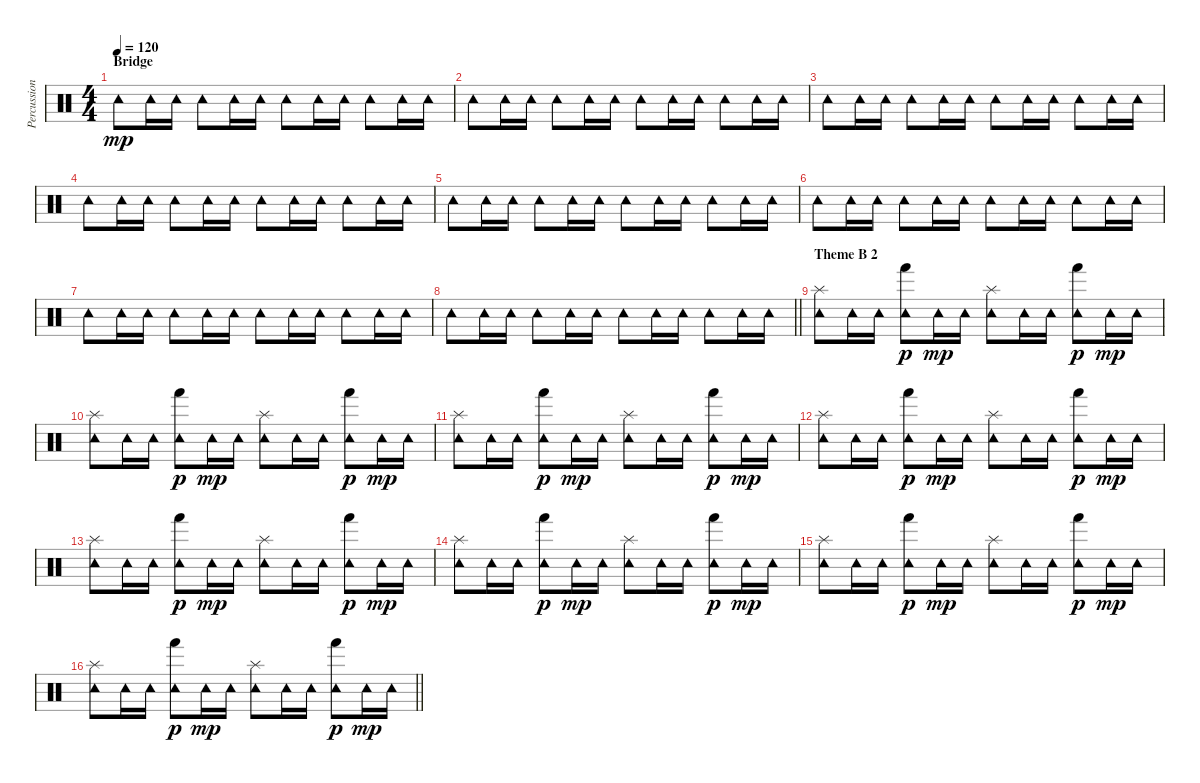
\track ("Percussion 2" "Percussion") {instrument percussion}
\staff {score}
\articulation defaults
\ts (4 4)
\section ("" "Bridge")
\tempo 120
\clef neutral
\ks c "Tambourine (hit)".8{dy mp} "Tambourine (hit)".16 "Tambourine (hit)".16 "Tambourine (hit)".8 "Tambourine (hit)".16 "Tambourine (hit)".16 "Tambourine (hit)".8 "Tambourine (hit)".16 "Tambourine (hit)".16 "Tambourine (hit)".8 "Tambourine (hit)".16 "Tambourine (hit)".16
|
"Tambourine (hit)".8 "Tambourine (hit)".16 "Tambourine (hit)".16 "Tambourine (hit)".8 "Tambourine (hit)".16 "Tambourine (hit)".16 "Tambourine (hit)".8 "Tambourine (hit)".16 "Tambourine (hit)".16 "Tambourine (hit)".8 "Tambourine (hit)".16 "Tambourine (hit)".16 |
"Tambourine (hit)".8 "Tambourine (hit)".16 "Tambourine (hit)".16 "Tambourine (hit)".8 "Tambourine (hit)".16 "Tambourine (hit)".16 "Tambourine (hit)".8 "Tambourine (hit)".16 "Tambourine (hit)".16 "Tambourine (hit)".8 "Tambourine (hit)".16 "Tambourine (hit)".16 |
"Tambourine (hit)".8 "Tambourine (hit)".16 "Tambourine (hit)".16 "Tambourine (hit)".8 "Tambourine (hit)".16 "Tambourine (hit)".16 "Tambourine (hit)".8 "Tambourine (hit)".16 "Tambourine (hit)".16 "Tambourine (hit)".8 "Tambourine (hit)".16 "Tambourine (hit)".16 |
"Tambourine (hit)".8 "Tambourine (hit)".16 "Tambourine (hit)".16 "Tambourine (hit)".8 "Tambourine (hit)".16 "Tambourine (hit)".16 "Tambourine (hit)".8 "Tambourine (hit)".16 "Tambourine (hit)".16 "Tambourine (hit)".8 "Tambourine (hit)".16 "Tambourine (hit)".16 |
"Tambourine (hit)".8 "Tambourine (hit)".16 "Tambourine (hit)".16 "Tambourine (hit)".8 "Tambourine (hit)".16 "Tambourine (hit)".16 "Tambourine (hit)".8 "Tambourine (hit)".16 "Tambourine (hit)".16 "Tambourine (hit)".8 "Tambourine (hit)".16 "Tambourine (hit)".16 |
"Tambourine (hit)".8 "Tambourine (hit)".16 "Tambourine (hit)".16 "Tambourine (hit)".8 "Tambourine (hit)".16 "Tambourine (hit)".16 "Tambourine (hit)".8 "Tambourine (hit)".16 "Tambourine (hit)".16 "Tambourine (hit)".8 "Tambourine (hit)".16 "Tambourine (hit)".16 |
\barLineRight lightlight "Tambourine (hit)".8 "Tambourine (hit)".16 "Tambourine (hit)".16 "Tambourine (hit)".8 "Tambourine (hit)".16 "Tambourine (hit)".16 "Tambourine (hit)".8 "Tambourine (hit)".16 "Tambourine (hit)".16 "Tambourine (hit)".8 "Tambourine (hit)".16 "Tambourine (hit)".16
|
\section ("" "Theme B 2")
("Tambourine (hit)" "Splash (hit)").8 "Tambourine (hit)".16 "Tambourine (hit)".16 ("Tambourine (hit)" "Hand (hit)").8{dy p} "Tambourine (hit)".16{dy mp} "Tambourine (hit)".16 ("Tambourine (hit)" "Splash (hit)").8 "Tambourine (hit)".16 "Tambourine (hit)".16 ("Tambourine (hit)" "Hand (hit)").8{dy p} "Tambourine (hit)".16{dy mp} "Tambourine (hit)".16 |
("Tambourine (hit)" "Splash (hit)").8 "Tambourine (hit)".16 "Tambourine (hit)".16 ("Tambourine (hit)" "Hand (hit)").8{dy p} "Tambourine (hit)".16{dy mp} "Tambourine (hit)".16 ("Tambourine (hit)" "Splash (hit)").8 "Tambourine (hit)".16 "Tambourine (hit)".16 ("Tambourine (hit)" "Hand (hit)").8{dy p} "Tambourine (hit)".16{dy mp} "Tambourine (hit)".16 |
("Tambourine (hit)" "Splash (hit)").8 "Tambourine (hit)".16 "Tambourine (hit)".16 ("Tambourine (hit)" "Hand (hit)").8{dy p} "Tambourine (hit)".16{dy mp} "Tambourine (hit)".16 ("Tambourine (hit)" "Splash (hit)").8 "Tambourine (hit)".16 "Tambourine (hit)".16 ("Tambourine (hit)" "Hand (hit)").8{dy p} "Tambourine (hit)".16{dy mp} "Tambourine (hit)".16 |
("Tambourine (hit)" "Splash (hit)").8 "Tambourine (hit)".16 "Tambourine (hit)".16 ("Tambourine (hit)" "Hand (hit)").8{dy p} "Tambourine (hit)".16{dy mp} "Tambourine (hit)".16 ("Tambourine (hit)" "Splash (hit)").8 "Tambourine (hit)".16 "Tambourine (hit)".16 ("Tambourine (hit)" "Hand (hit)").8{dy p} "Tambourine (hit)".16{dy mp} "Tambourine (hit)".16 |
("Tambourine (hit)" "Splash (hit)").8 "Tambourine (hit)".16 "Tambourine (hit)".16 ("Tambourine (hit)" "Hand (hit)").8{dy p} "Tambourine (hit)".16{dy mp} "Tambourine (hit)".16 ("Tambourine (hit)" "Splash (hit)").8 "Tambourine (hit)".16 "Tambourine (hit)".16 ("Tambourine (hit)" "Hand (hit)").8{dy p} "Tambourine (hit)".16{dy mp} "Tambourine (hit)".16 |
("Tambourine (hit)" "Splash (hit)").8 "Tambourine (hit)".16 "Tambourine (hit)".16 ("Tambourine (hit)" "Hand (hit)").8{dy p} "Tambourine (hit)".16{dy mp} "Tambourine (hit)".16 ("Tambourine (hit)" "Splash (hit)").8 "Tambourine (hit)".16 "Tambourine (hit)".16 ("Tambourine (hit)" "Hand (hit)").8{dy p} "Tambourine (hit)".16{dy mp} "Tambourine (hit)".16 |
("Tambourine (hit)" "Splash (hit)").8 "Tambourine (hit)".16 "Tambourine (hit)".16 ("Tambourine (hit)" "Hand (hit)").8{dy p} "Tambourine (hit)".16{dy mp} "Tambourine (hit)".16 ("Tambourine (hit)" "Splash (hit)").8 "Tambourine (hit)".16 "Tambourine (hit)".16 ("Tambourine (hit)" "Hand (hit)").8{dy p} "Tambourine (hit)".16{dy mp} "Tambourine (hit)".16 |
\barLineRight lightlight
("Tambourine (hit)" "Splash (hit)").8 "Tambourine (hit)".16 "Tambourine (hit)".16 ("Tambourine (hit)" "Hand (hit)").8{dy p} "Tambourine (hit)".16{dy mp} "Tambourine (hit)".16 ("Tambourine (hit)" "Splash (hit)").8 "Tambourine (hit)".16 "Tambourine (hit)".16 ("Tambourine (hit)" "Hand (hit)").8{dy p} "Tambourine (hit)".16{dy mp} "Tambourine (hit)".16
